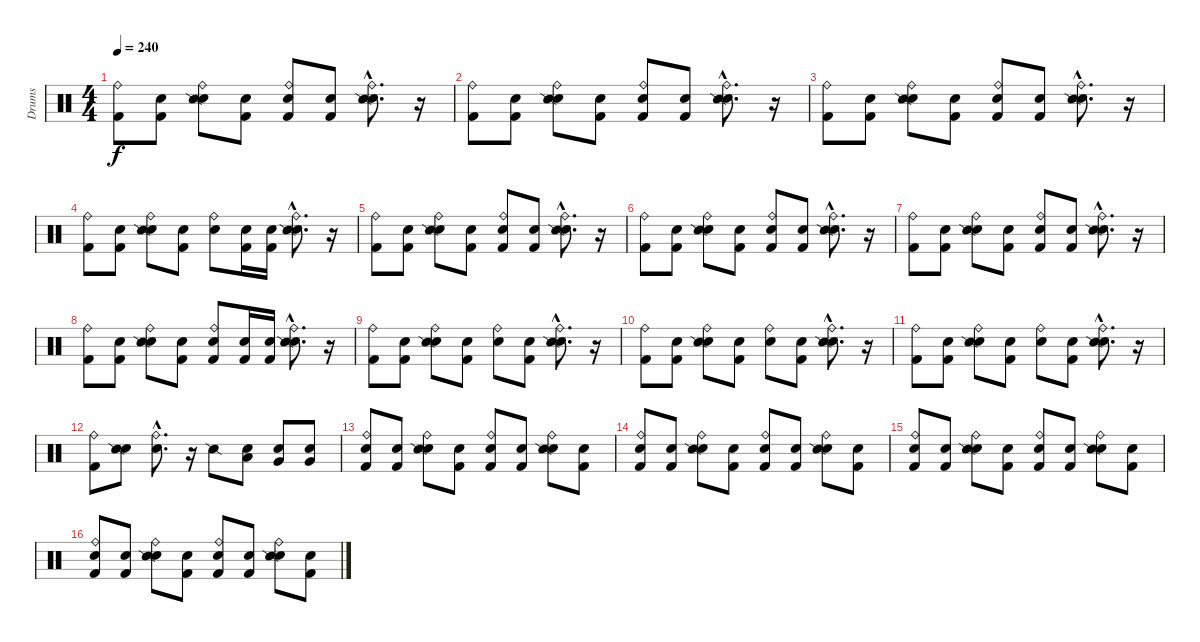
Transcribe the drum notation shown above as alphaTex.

\track ("Drums" "Drums") {instrument percussion}
\staff {score}
\articulation defaults
\ts (4 4)
\tempo 240
\clef neutral
\ks c
("Kick (hit) 2" "Ride (bell)").8{dy f} ("Snare (hit)" "Kick (hit) 2").8 ("Snare (hit)" "Ride (bell)" "Snare (side stick) 2").8 ("Snare (hit)" "Kick (hit) 2").8 ("Snare (hit)" "Kick (hit) 2" "Ride (bell)").8 ("Snare (hit)" "Kick (hit) 2").8 ("Snare (hit)"{hac} "Snare (side stick) 2"{hac} "Ride (bell)"{hac}).8{d} r.16 |
("Kick (hit) 2" "Ride (bell)").8 ("Snare (hit)" "Kick (hit) 2").8 ("Snare (hit)" "Ride (bell)" "Snare (side stick) 2").8 ("Snare (hit)" "Kick (hit) 2").8 ("Snare (hit)" "Kick (hit) 2" "Ride (bell)").8 ("Snare (hit)" "Kick (hit) 2").8 ("Snare (hit)"{hac} "Snare (side stick) 2"{hac} "Ride (bell)"{hac}).8{d} r.16 |
("Kick (hit) 2" "Ride (bell)").8 ("Snare (hit)" "Kick (hit) 2").8 ("Snare (hit)" "Ride (bell)" "Snare (side stick) 2").8 ("Snare (hit)" "Kick (hit) 2").8 ("Snare (hit)" "Kick (hit) 2" "Ride (bell)").8 ("Snare (hit)" "Kick (hit) 2").8 ("Snare (hit)"{hac} "Snare (side stick) 2"{hac} "Ride (bell)"{hac}).8{d} r.16 |
("Kick (hit) 2" "Ride (bell)").8 ("Snare (hit)" "Kick (hit) 2").8 ("Snare (hit)" "Ride (bell)" "Snare (side stick) 2").8 ("Snare (hit)" "Kick (hit) 2").8 ("Snare (hit)" "Ride (bell)").8 ("Snare (hit)" "Kick (hit) 2").16 ("Snare (hit)" "Kick (hit) 2").16 ("Snare (hit)"{hac} "Snare (side stick) 2"{hac} "Ride (bell)"{hac}).8{d} r.16 |
("Kick (hit) 2" "Ride (bell)").8 ("Snare (hit)" "Kick (hit) 2").8 ("Snare (hit)" "Ride (bell)" "Snare (side stick) 2").8 ("Snare (hit)" "Kick (hit) 2").8 ("Snare (hit)" "Kick (hit) 2" "Ride (bell)").8 ("Snare (hit)" "Kick (hit) 2").8 ("Snare (hit)"{hac} "Snare (side stick) 2"{hac} "Ride (bell)"{hac}).8{d} r.16 |
("Kick (hit) 2" "Ride (bell)").8 ("Snare (hit)" "Kick (hit) 2").8 ("Snare (hit)" "Ride (bell)" "Snare (side stick) 2").8 ("Snare (hit)" "Kick (hit) 2").8 ("Snare (hit)" "Kick (hit) 2" "Ride (bell)").8 ("Snare (hit)" "Kick (hit) 2").8 ("Snare (hit)"{hac} "Snare (side stick) 2"{hac} "Ride (bell)"{hac}).8{d} r.16 |
("Kick (hit) 2" "Ride (bell)").8 ("Snare (hit)" "Kick (hit) 2").8 ("Snare (hit)" "Ride (bell)" "Snare (side stick) 2").8 ("Snare (hit)" "Kick (hit) 2").8 ("Snare (hit)" "Kick (hit) 2" "Ride (bell)").8 ("Snare (hit)" "Kick (hit) 2").8 ("Snare (hit)"{hac} "Snare (side stick) 2"{hac} "Ride (bell)"{hac}).8{d} r.16 |
("Kick (hit) 2" "Ride (bell)").8 ("Snare (hit)" "Kick (hit) 2").8 ("Snare (hit)" "Ride (bell)" "Snare (side stick) 2").8 ("Snare (hit)" "Kick (hit) 2").8 ("Snare (hit)" "Kick (hit) 2" "Ride (bell)").8 ("Snare (hit)" "Kick (hit) 2").16 ("Snare (hit)" "Kick (hit) 2").16 ("Snare (hit)"{hac} "Snare (side stick) 2"{hac} "Ride (bell)"{hac}).8{d} r.16 |
("Kick (hit) 2" "Ride (bell)").8 ("Snare (hit)" "Kick (hit) 2").8 ("Snare (hit)" "Ride (bell)" "Snare (side stick) 2").8 ("Snare (hit)" "Kick (hit) 2").8 ("Snare (hit)" "Ride (bell)").8 ("Snare (hit)" "Kick (hit) 2").8 ("Snare (hit)"{hac} "Snare (side stick) 2"{hac} "Ride (bell)"{hac}).8{d} r.16 |
("Kick (hit) 2" "Ride (bell)").8 ("Snare (hit)" "Kick (hit) 2").8 ("Snare (hit)" "Ride (bell)" "Snare (side stick) 2").8 ("Snare (hit)" "Kick (hit) 2").8 ("Snare (hit)" "Ride (bell)").8 ("Snare (hit)" "Kick (hit) 2").8 ("Snare (hit)"{hac} "Snare (side stick) 2"{hac} "Ride (bell)"{hac}).8{d} r.16 |
("Kick (hit) 2" "Ride (bell)").8 ("Snare (hit)" "Kick (hit) 2").8 ("Snare (hit)" "Ride (bell)" "Snare (side stick) 2").8 ("Snare (hit)" "Kick (hit) 2").8 ("Snare (hit)" "Ride (bell)").8 ("Snare (hit)" "Kick (hit) 2").8 ("Snare (hit)"{hac} "Snare (side stick) 2"{hac} "Ride (bell)"{hac}).8{d} r.16 |
("Kick (hit) 2" "Ride (bell)").8 ("Snare (hit)" "Snare (side stick) 2").8 ("Snare (hit)"{hac} "Ride (bell)"{hac}).8{d} r.16 "Snare (side stick) 2".8 ("Snare (hit)" "Low Tom (hit)").8 ("Snare (hit)" "Very Low Tom (hit)").8 ("Snare (hit)" "Very Low Tom (hit)").8 |
("Snare (hit)" "Kick (hit) 2" "Ride (bell)").8 ("Snare (hit)" "Kick (hit) 2").8 ("Snare (hit)" "Ride (bell)" "Snare (side stick) 2").8 ("Snare (hit)" "Kick (hit) 2").8 ("Snare (hit)" "Kick (hit) 2" "Ride (bell)").8 ("Snare (hit)" "Kick (hit) 2").8 ("Snare (hit)" "Ride (bell)" "Snare (side stick) 2").8 ("Snare (hit)" "Kick (hit) 2").8 |
("Snare (hit)" "Kick (hit) 2" "Ride (bell)").8 ("Snare (hit)" "Kick (hit) 2").8 ("Snare (hit)" "Ride (bell)" "Snare (side stick) 2").8 ("Snare (hit)" "Kick (hit) 2").8 ("Snare (hit)" "Kick (hit) 2" "Ride (bell)").8 ("Snare (hit)" "Kick (hit) 2").8 ("Snare (hit)" "Ride (bell)" "Snare (side stick) 2").8 ("Snare (hit)" "Kick (hit) 2").8 |
("Snare (hit)" "Kick (hit) 2" "Ride (bell)").8 ("Snare (hit)" "Kick (hit) 2").8 ("Snare (hit)" "Ride (bell)" "Snare (side stick) 2").8 ("Snare (hit)" "Kick (hit) 2").8 ("Snare (hit)" "Kick (hit) 2" "Ride (bell)").8 ("Snare (hit)" "Kick (hit) 2").8 ("Snare (hit)" "Ride (bell)" "Snare (side stick) 2").8 ("Snare (hit)" "Kick (hit) 2").8 |
("Snare (hit)" "Kick (hit) 2" "Ride (bell)").8 ("Snare (hit)" "Kick (hit) 2").8 ("Snare (hit)" "Ride (bell)" "Snare (side stick) 2").8 ("Snare (hit)" "Kick (hit) 2").8 ("Snare (hit)" "Kick (hit) 2" "Ride (bell)").8 ("Snare (hit)" "Kick (hit) 2").8 ("Snare (hit)" "Ride (bell)" "Snare (side stick) 2").8 ("Snare (hit)" "Kick (hit) 2").8
